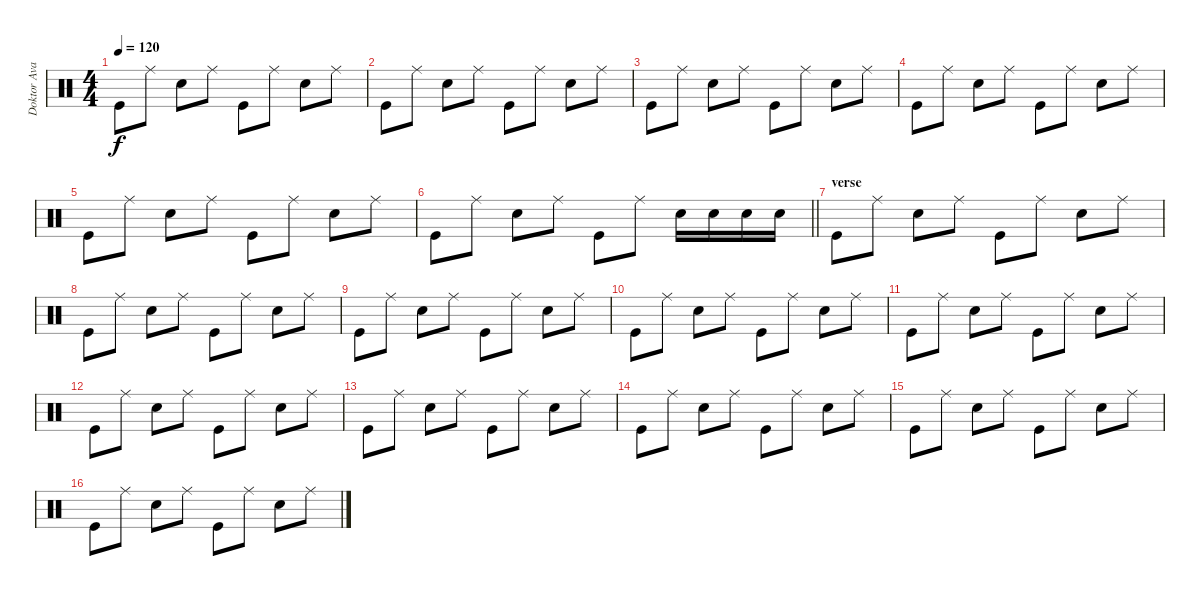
\track ("Doktor Avalanche" "Doktor Ava") {instrument percussion}
\staff {score}
\articulation defaults
\ts (4 4)
\tempo 120
\clef neutral
\ks c "Kick (hit)".8{dy f} "Ride (middle)".8 "Snare (hit) 2".8 "Ride (middle)".8 "Kick (hit)".8 "Ride (middle)".8 "Snare (hit) 2".8 "Ride (middle)".8
|
"Kick (hit)".8 "Ride (middle)".8 "Snare (hit) 2".8 "Ride (middle)".8 "Kick (hit)".8 "Ride (middle)".8 "Snare (hit) 2".8 "Ride (middle)".8 |
"Kick (hit)".8 "Ride (middle)".8 "Snare (hit) 2".8 "Ride (middle)".8 "Kick (hit)".8 "Ride (middle)".8 "Snare (hit) 2".8 "Ride (middle)".8 |
"Kick (hit)".8 "Ride (middle)".8 "Snare (hit) 2".8 "Ride (middle)".8 "Kick (hit)".8 "Ride (middle)".8 "Snare (hit) 2".8 "Ride (middle)".8 |
"Kick (hit)".8 "Ride (middle)".8 "Snare (hit) 2".8 "Ride (middle)".8 "Kick (hit)".8 "Ride (middle)".8 "Snare (hit) 2".8 "Ride (middle)".8 |
\barLineRight lightlight "Kick (hit)".8 "Ride (middle)".8 "Snare (hit) 2".8 "Ride (middle)".8 "Kick (hit)".8 "Ride (middle)".8 "Snare (hit) 2".16 "Snare (hit) 2".16 "Snare (hit) 2".16 "Snare (hit) 2".16
|
\section ("" "verse")
"Kick (hit)".8 "Ride (middle)".8 "Snare (hit) 2".8 "Ride (middle)".8 "Kick (hit)".8 "Ride (middle)".8 "Snare (hit) 2".8 "Ride (middle)".8 |
"Kick (hit)".8 "Ride (middle)".8 "Snare (hit) 2".8 "Ride (middle)".8 "Kick (hit)".8 "Ride (middle)".8 "Snare (hit) 2".8 "Ride (middle)".8 |
"Kick (hit)".8 "Ride (middle)".8 "Snare (hit) 2".8 "Ride (middle)".8 "Kick (hit)".8 "Ride (middle)".8 "Snare (hit) 2".8 "Ride (middle)".8 |
"Kick (hit)".8 "Ride (middle)".8 "Snare (hit) 2".8 "Ride (middle)".8 "Kick (hit)".8 "Ride (middle)".8 "Snare (hit) 2".8 "Ride (middle)".8 |
"Kick (hit)".8 "Ride (middle)".8 "Snare (hit) 2".8 "Ride (middle)".8 "Kick (hit)".8 "Ride (middle)".8 "Snare (hit) 2".8 "Ride (middle)".8 |
"Kick (hit)".8 "Ride (middle)".8 "Snare (hit) 2".8 "Ride (middle)".8 "Kick (hit)".8 "Ride (middle)".8 "Snare (hit) 2".8 "Ride (middle)".8 |
"Kick (hit)".8 "Ride (middle)".8 "Snare (hit) 2".8 "Ride (middle)".8 "Kick (hit)".8 "Ride (middle)".8 "Snare (hit) 2".8 "Ride (middle)".8 |
"Kick (hit)".8 "Ride (middle)".8 "Snare (hit) 2".8 "Ride (middle)".8 "Kick (hit)".8 "Ride (middle)".8 "Snare (hit) 2".8 "Ride (middle)".8 |
"Kick (hit)".8 "Ride (middle)".8 "Snare (hit) 2".8 "Ride (middle)".8 "Kick (hit)".8 "Ride (middle)".8 "Snare (hit) 2".8 "Ride (middle)".8 |
"Kick (hit)".8 "Ride (middle)".8 "Snare (hit) 2".8 "Ride (middle)".8 "Kick (hit)".8 "Ride (middle)".8 "Snare (hit) 2".8 "Ride (middle)".8
